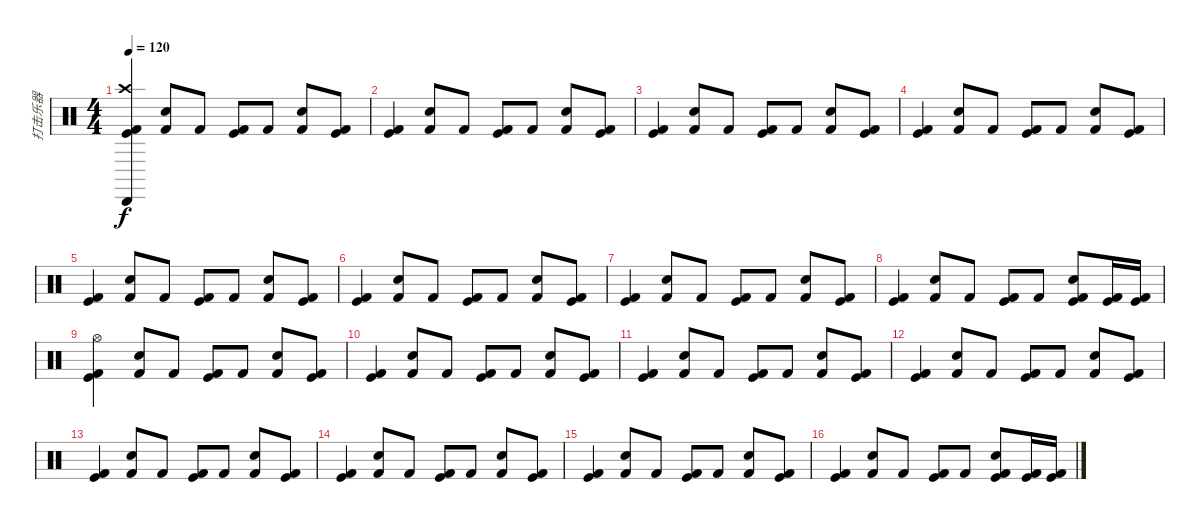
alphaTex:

\track ("打击乐器" "打击乐器") {instrument percussion}
\staff {score}
\articulation defaults
\ts (4 4)
\tempo 120
\clef neutral
\ks c
("Crash high (hit)" "Kick (hit) 2" "Kick (hit)" "Cabasa (hit)").4{dy f} ("Kick (hit) 2" "Electric Snare (hit)").8 "Kick (hit) 2".8 ("Kick (hit) 2" "Kick (hit)").8 "Kick (hit) 2".8 ("Kick (hit) 2" "Electric Snare (hit)").8 ("Kick (hit) 2" "Kick (hit)").8 |
("Kick (hit) 2" "Kick (hit)").4 ("Kick (hit) 2" "Electric Snare (hit)").8 "Kick (hit) 2".8 ("Kick (hit) 2" "Kick (hit)").8 "Kick (hit) 2".8 ("Kick (hit) 2" "Electric Snare (hit)").8 ("Kick (hit) 2" "Kick (hit)").8 |
("Kick (hit) 2" "Kick (hit)").4 ("Kick (hit) 2" "Electric Snare (hit)").8 "Kick (hit) 2".8 ("Kick (hit) 2" "Kick (hit)").8 "Kick (hit) 2".8 ("Kick (hit) 2" "Electric Snare (hit)").8 ("Kick (hit) 2" "Kick (hit)").8 |
("Kick (hit) 2" "Kick (hit)").4 ("Kick (hit) 2" "Electric Snare (hit)").8 "Kick (hit) 2".8 ("Kick (hit) 2" "Kick (hit)").8 "Kick (hit) 2".8 ("Kick (hit) 2" "Electric Snare (hit)").8 ("Kick (hit) 2" "Kick (hit)").8 |
("Kick (hit) 2" "Kick (hit)").4 ("Kick (hit) 2" "Electric Snare (hit)").8 "Kick (hit) 2".8 ("Kick (hit) 2" "Kick (hit)").8 "Kick (hit) 2".8 ("Kick (hit) 2" "Electric Snare (hit)").8 ("Kick (hit) 2" "Kick (hit)").8 |
("Kick (hit) 2" "Kick (hit)").4 ("Kick (hit) 2" "Electric Snare (hit)").8 "Kick (hit) 2".8 ("Kick (hit) 2" "Kick (hit)").8 "Kick (hit) 2".8 ("Kick (hit) 2" "Electric Snare (hit)").8 ("Kick (hit) 2" "Kick (hit)").8 |
("Kick (hit) 2" "Kick (hit)").4 ("Kick (hit) 2" "Electric Snare (hit)").8 "Kick (hit) 2".8 ("Kick (hit) 2" "Kick (hit)").8 "Kick (hit) 2".8 ("Kick (hit) 2" "Electric Snare (hit)").8 ("Kick (hit) 2" "Kick (hit)").8 |
("Kick (hit) 2" "Kick (hit)").4 ("Kick (hit) 2" "Electric Snare (hit)").8 "Kick (hit) 2".8 ("Kick (hit) 2" "Kick (hit)").8 "Kick (hit) 2".8 ("Kick (hit) 2" "Kick (hit)" "Electric Snare (hit)").8 ("Kick (hit) 2" "Kick (hit)").16 ("Kick (hit) 2" "Kick (hit)").16 |
("Kick (hit) 2" "Kick (hit)" "Hi-Hat (open)").4 ("Kick (hit) 2" "Electric Snare (hit)").8 "Kick (hit) 2".8 ("Kick (hit) 2" "Kick (hit)").8 "Kick (hit) 2".8 ("Kick (hit) 2" "Electric Snare (hit)").8 ("Kick (hit) 2" "Kick (hit)").8 |
("Kick (hit) 2" "Kick (hit)").4 ("Kick (hit) 2" "Electric Snare (hit)").8 "Kick (hit) 2".8 ("Kick (hit) 2" "Kick (hit)").8 "Kick (hit) 2".8 ("Kick (hit) 2" "Electric Snare (hit)").8 ("Kick (hit) 2" "Kick (hit)").8 |
("Kick (hit) 2" "Kick (hit)").4 ("Kick (hit) 2" "Electric Snare (hit)").8 "Kick (hit) 2".8 ("Kick (hit) 2" "Kick (hit)").8 "Kick (hit) 2".8 ("Kick (hit) 2" "Electric Snare (hit)").8 ("Kick (hit) 2" "Kick (hit)").8 |
("Kick (hit) 2" "Kick (hit)").4 ("Kick (hit) 2" "Electric Snare (hit)").8 "Kick (hit) 2".8 ("Kick (hit) 2" "Kick (hit)").8 "Kick (hit) 2".8 ("Kick (hit) 2" "Electric Snare (hit)").8 ("Kick (hit) 2" "Kick (hit)").8 |
("Kick (hit) 2" "Kick (hit)").4 ("Kick (hit) 2" "Electric Snare (hit)").8 "Kick (hit) 2".8 ("Kick (hit) 2" "Kick (hit)").8 "Kick (hit) 2".8 ("Kick (hit) 2" "Electric Snare (hit)").8 ("Kick (hit) 2" "Kick (hit)").8 |
("Kick (hit) 2" "Kick (hit)").4 ("Kick (hit) 2" "Electric Snare (hit)").8 "Kick (hit) 2".8 ("Kick (hit) 2" "Kick (hit)").8 "Kick (hit) 2".8 ("Kick (hit) 2" "Electric Snare (hit)").8 ("Kick (hit) 2" "Kick (hit)").8 |
("Kick (hit) 2" "Kick (hit)").4 ("Kick (hit) 2" "Electric Snare (hit)").8 "Kick (hit) 2".8 ("Kick (hit) 2" "Kick (hit)").8 "Kick (hit) 2".8 ("Kick (hit) 2" "Electric Snare (hit)").8 ("Kick (hit) 2" "Kick (hit)").8 |
("Kick (hit) 2" "Kick (hit)").4 ("Kick (hit) 2" "Electric Snare (hit)").8 "Kick (hit) 2".8 ("Kick (hit) 2" "Kick (hit)").8 "Kick (hit) 2".8 ("Kick (hit) 2" "Kick (hit)" "Electric Snare (hit)").8 ("Kick (hit) 2" "Kick (hit)").16 ("Kick (hit) 2" "Kick (hit)").16
